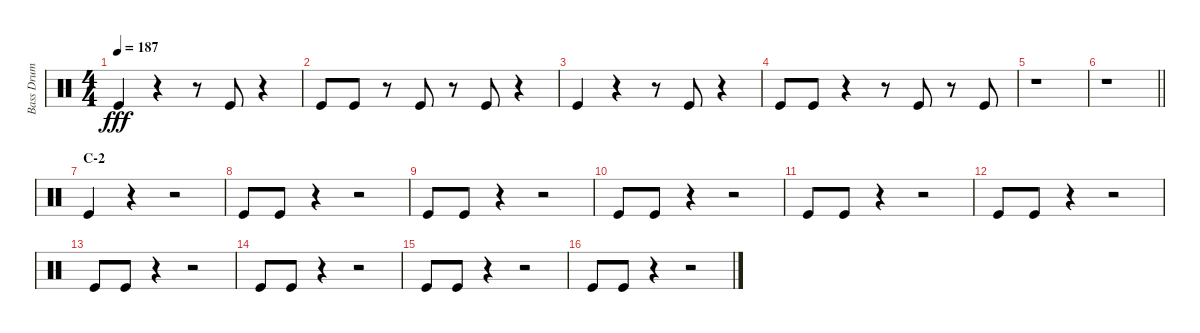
\track ("Bass Drum" "Bass Drum") {instrument percussion}
\staff {score}
\articulation defaults
\ts (4 4)
\tempo 187
\clef neutral
\ks c "Kick (hit)".4{dy fff}
r.4 r.8 "Kick (hit)".8 r.4 |
"Kick (hit)".8 "Kick (hit)".8 r.8 "Kick (hit)".8 r.8 "Kick (hit)".8 r.4 |
"Kick (hit)".4 r.4 r.8 "Kick (hit)".8 r.4 |
"Kick (hit)".8 "Kick (hit)".8 r.4 r.8 "Kick (hit)".8 r.8 "Kick (hit)".8 |
r.1 |
\barLineRight lightlight
r.1 |
\section ("" "C-2")
"Kick (hit)".4 r.4 r.2 |
"Kick (hit)".8 "Kick (hit)".8 r.4 r.2 |
"Kick (hit)".8 "Kick (hit)".8 r.4 r.2 |
"Kick (hit)".8 "Kick (hit)".8 r.4 r.2 |
"Kick (hit)".8 "Kick (hit)".8 r.4 r.2 |
"Kick (hit)".8 "Kick (hit)".8 r.4 r.2 |
"Kick (hit)".8 "Kick (hit)".8 r.4 r.2 |
"Kick (hit)".8 "Kick (hit)".8 r.4 r.2 |
"Kick (hit)".8 "Kick (hit)".8 r.4 r.2 |
"Kick (hit)".8 "Kick (hit)".8 r.4 r.2
